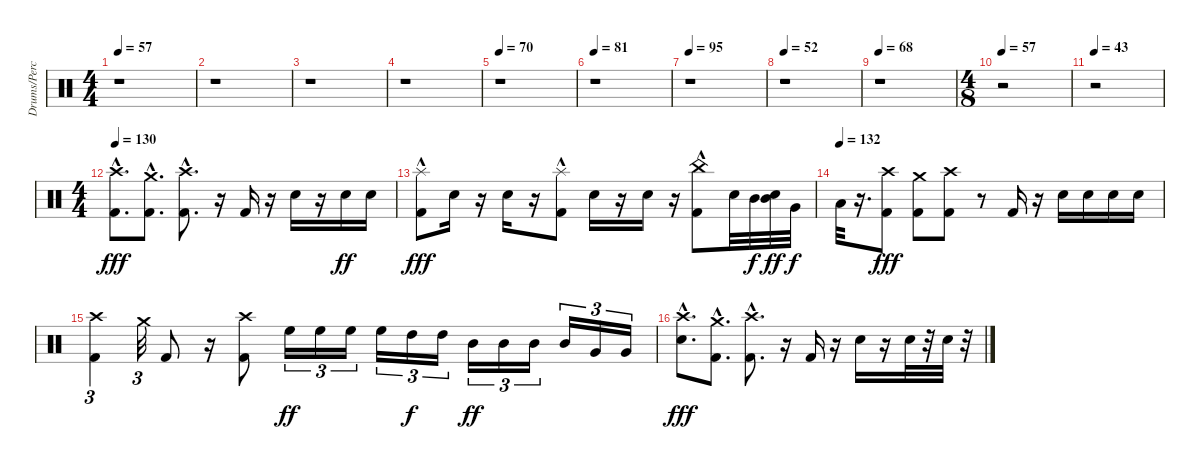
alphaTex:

\track ("Drums/Percussion" "Drums/Perc") {instrument percussion}
\staff {score}
\articulation defaults
\ts (4 4)
\tempo 57
\clef neutral
\ks c
r.1{dy fff} |
r.1 |
r.1 |
r.1 |
\tempo 70
r.1 |
\tempo 81
r.1 |
\tempo 95
r.1 |
\tempo 52
r.1 |
\tempo 68
r.1 |
\ts (4 8)
\tempo 57
r.2 |
\tempo 43
r.2 |
\ts (4 4)
\tempo 130
("Kick (hit) 2" "Crash high (hit)"{hac}).8{d} ("Kick (hit) 2" "Crash medium (hit)"{hac}).8{d} ("Kick (hit) 2" "Crash high (hit)"{hac}).8{d} r.16 "Kick (hit) 2".16 r.16 "Snare (hit) 2".16 r.16 "Snare (hit) 2".16{dy ff} "Snare (hit) 2".16 |
("Kick (hit) 2" "Splash (hit)"{hac}).8{dy fff} "Snare (hit) 2".16 r.16 "Snare (hit) 2".16 r.16 ("Kick (hit) 2" "Splash (hit)"{hac}).8 "Snare (hit) 2".16 r.16 "Snare (hit) 2".16 r.16 ("Kick (hit) 2" "China (hit)"{hac}).8 "Snare (hit) 2".32 "Mid Tom (hit)".32{dy f} ("Snare (hit) 2" "Mid Tom (hit)").32{dy ff} "Very Low Tom (hit)".32{dy f} |
\tempo (132)
"Low Floor Tom (hit)".32 r.16{d} ("Kick (hit) 2" "Crash high (hit)").8{dy fff} ("Kick (hit) 2" "Crash medium (hit)").8 ("Kick (hit) 2" "Crash high (hit)").8 r.8 "Kick (hit) 2".16 r.16 "Snare (hit) 2".16 "Snare (hit) 2".16 "Snare (hit) 2".16 "Snare (hit) 2".16 |
("Kick (hit) 2" "Crash high (hit)").4{tu (3 2)} "Crash medium (hit)".32{tu (3 2)} "Kick (hit) 2".8 r.16 ("Kick (hit) 2" "Crash high (hit)").8 "High Floor Tom (hit)".16{tu (3 2) dy ff} "High Floor Tom (hit)".16{tu (3 2)} "High Floor Tom (hit)".16{tu (3 2)} "High Floor Tom (hit)".16{tu (3 2)} "High Tom (hit)".16{tu (3 2) dy f} "High Tom (hit)".16{tu (3 2)} "Mid Tom (hit)".16{tu (3 2) dy ff} "Mid Tom (hit)".16{tu (3 2)} "Mid Tom (hit)".16{tu (3 2)} "Mid Tom (hit)".16{tu (3 2)} "Very Low Tom (hit)".16{tu (3 2)} "Very Low Tom (hit)".16{tu (3 2)} |
("Snare (hit) 2"{hac} "Crash high (hit)"{hac}).8{d dy fff} ("Kick (hit) 2" "Crash medium (hit)"{hac}).8{d} ("Kick (hit) 2" "Crash high (hit)"{hac}).8{d} r.16 "Kick (hit) 2".16 r.16 "Snare (hit) 2".16 r.16 "Snare (hit) 2".32 r.32 "Snare (hit) 2".32 r.32
